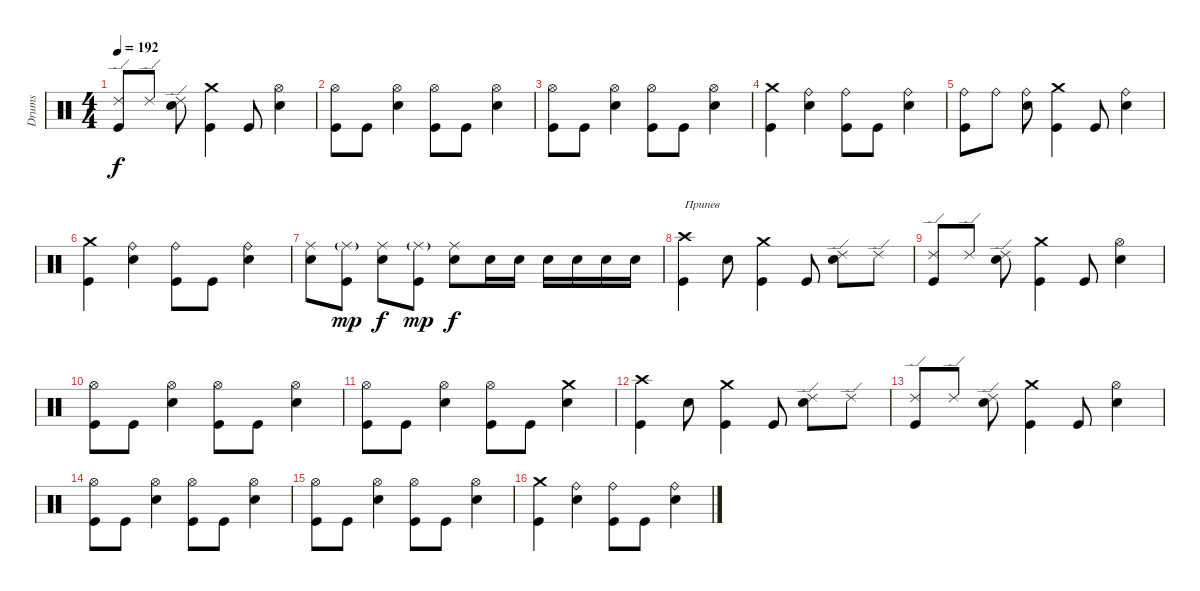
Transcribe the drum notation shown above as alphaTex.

\track ("Drums" "Drums") {instrument percussion}
\staff {score}
\articulation defaults
\ts (4 4)
\tempo 192
\clef neutral
\ks c
("Ride (edge) 2" "Kick (hit)").8{dy f} "Ride (edge) 2".8 ("Ride (edge) 2" "Electric Snare (hit)").8 ("Crash medium (hit)" "Kick (hit)").4 "Kick (hit)".8 ("Hi-Hat (open)" "Electric Snare (hit)").4 |
("Hi-Hat (open)" "Kick (hit)").8 "Kick (hit)".8 ("Hi-Hat (open)" "Electric Snare (hit)").4 ("Hi-Hat (open)" "Kick (hit)").8 "Kick (hit)".8 ("Hi-Hat (open)" "Electric Snare (hit)").4 |
("Hi-Hat (open)" "Kick (hit)").8 "Kick (hit)".8 ("Hi-Hat (open)" "Electric Snare (hit)").4 ("Hi-Hat (open)" "Kick (hit)").8 "Kick (hit)".8 ("Hi-Hat (open)" "Electric Snare (hit)").4 |
("Crash medium (hit)" "Kick (hit)").4 ("Ride (bell)" "Electric Snare (hit)").4 ("Ride (bell)" "Kick (hit)").8 "Kick (hit)".8 ("Ride (bell)" "Electric Snare (hit)").4 |
("Ride (bell)" "Kick (hit)").8 "Ride (bell)".8 ("Ride (bell)" "Electric Snare (hit)").8 ("Crash medium (hit)" "Kick (hit)").4 "Kick (hit)".8 ("Ride (bell)" "Electric Snare (hit)").4 |
("Crash medium (hit)" "Kick (hit)").4 ("Ride (bell)" "Electric Snare (hit)").4 ("Ride (bell)" "Kick (hit)").8 "Kick (hit)".8 ("Ride (bell)" "Electric Snare (hit)").4 |
("Ride (middle)" "Electric Snare (hit)").8 ("Ride (middle)"{g} "Kick (hit)").8{dy mp} ("Ride (middle)" "Electric Snare (hit)").8{dy f} ("Ride (middle)"{g} "Kick (hit)").8{dy mp} ("Ride (middle)" "Electric Snare (hit)").8{dy f} "Electric Snare (hit)".16 "Electric Snare (hit)".16 "Electric Snare (hit)".16 "Electric Snare (hit)".16 "Electric Snare (hit)".16 "Electric Snare (hit)".16 |
("Crash high (hit)" "Kick (hit)").4{txt "Припев"} "Electric Snare (hit)".8 ("Crash medium (hit)" "Kick (hit)").4 "Kick (hit)".8 ("Ride (edge) 2" "Electric Snare (hit)").8 "Ride (edge) 2".8 |
("Ride (edge) 2" "Kick (hit)").8 "Ride (edge) 2".8 ("Ride (edge) 2" "Electric Snare (hit)").8 ("Crash medium (hit)" "Kick (hit)").4 "Kick (hit)".8 ("Hi-Hat (open)" "Electric Snare (hit)").4 |
("Hi-Hat (open)" "Kick (hit)").8 "Kick (hit)".8 ("Hi-Hat (open)" "Electric Snare (hit)").4 ("Hi-Hat (open)" "Kick (hit)").8 "Kick (hit)".8 ("Hi-Hat (open)" "Electric Snare (hit)").4 |
("Hi-Hat (open)" "Kick (hit)").8 "Kick (hit)".8 ("Hi-Hat (open)" "Electric Snare (hit)").4 ("Hi-Hat (open)" "Kick (hit)").8 "Kick (hit)".8 ("Crash medium (hit)" "Electric Snare (hit)").4 |
("Crash high (hit)" "Kick (hit)").4 "Electric Snare (hit)".8 ("Crash medium (hit)" "Kick (hit)").4 "Kick (hit)".8 ("Ride (edge) 2" "Electric Snare (hit)").8 "Ride (edge) 2".8 |
("Ride (edge) 2" "Kick (hit)").8 "Ride (edge) 2".8 ("Ride (edge) 2" "Electric Snare (hit)").8 ("Crash medium (hit)" "Kick (hit)").4 "Kick (hit)".8 ("Hi-Hat (open)" "Electric Snare (hit)").4 |
("Hi-Hat (open)" "Kick (hit)").8 "Kick (hit)".8 ("Hi-Hat (open)" "Electric Snare (hit)").4 ("Hi-Hat (open)" "Kick (hit)").8 "Kick (hit)".8 ("Hi-Hat (open)" "Electric Snare (hit)").4 |
("Hi-Hat (open)" "Kick (hit)").8 "Kick (hit)".8 ("Hi-Hat (open)" "Electric Snare (hit)").4 ("Hi-Hat (open)" "Kick (hit)").8 "Kick (hit)".8 ("Hi-Hat (open)" "Electric Snare (hit)").4 |
("Crash medium (hit)" "Kick (hit)").4 ("Ride (bell)" "Electric Snare (hit)").4 ("Ride (bell)" "Kick (hit)").8 "Kick (hit)".8 ("Ride (bell)" "Electric Snare (hit)").4
